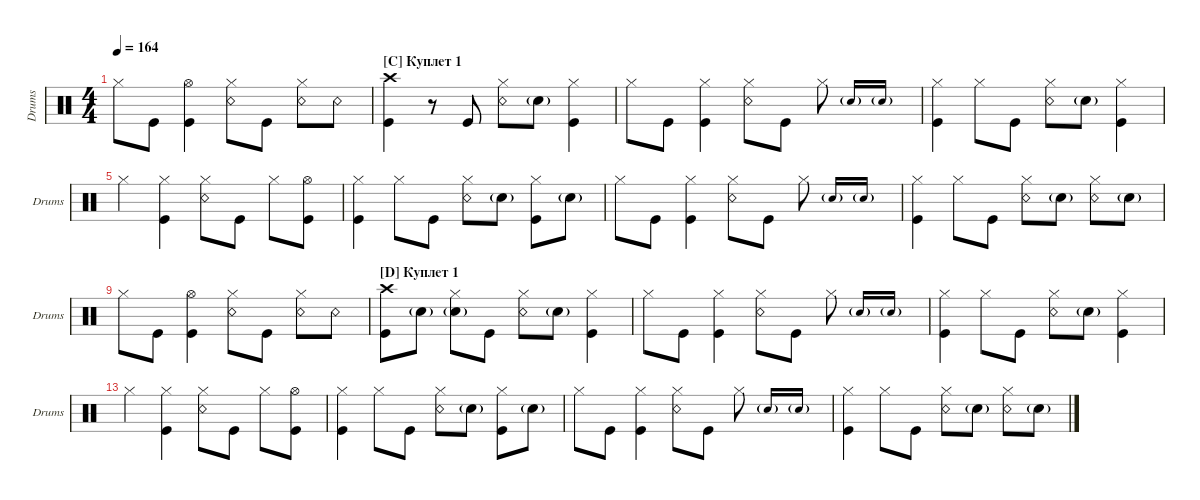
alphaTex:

\defaultSystemsLayout 4
\hideDynamics
\bracketExtendMode groupsimilarinstruments
\singleTrackTrackNamePolicy allsystems
\multiTrackTrackNamePolicy allsystems
\otherSystemsTrackNameOrientation horizontal
\defaultBarNumberDisplay FirstOfSystem
\track ("Drumkit" "Drums") {instrument percussion}
\staff {score}
\articulation defaults
\ts (4 4)
\tempo 164
\clef neutral
\ks c "Hi-Hat (closed)".8{dy f} "Kick (hit)".8
("Kick (hit)" "Hi-Hat (open)").4 ("Snare (rim shot)" "Hi-Hat (closed)").8 "Kick (hit)".8 ("Snare (rim shot)" "Hi-Hat (closed)").8 "Snare (rim shot)".8 |
\section ("C" "Куплет 1")
("Crash high (hit)" "Kick (hit)").4 r.8 "Kick (hit)".8 ("Hi-Hat (closed)" "Snare (rim shot)").8 "Snare (hit) 2"{g}.8 ("Hi-Hat (closed)" "Kick (hit)").4 |
"Hi-Hat (closed)".8 "Kick (hit)".8 ("Kick (hit)" "Hi-Hat (closed)").4 ("Snare (rim shot)" "Hi-Hat (closed)").8 "Kick (hit)".8 "Hi-Hat (closed)".8 "Snare (hit) 2"{g}.16{gr onbeat} "Snare (hit) 2"{g}.16{gr onbeat} |
("Kick (hit)" "Hi-Hat (closed)").4 "Hi-Hat (closed)".8 "Kick (hit)".8 ("Hi-Hat (closed)" "Snare (rim shot)").8 "Snare (hit) 2"{g}.8 ("Hi-Hat (closed)" "Kick (hit)").4 |
"Hi-Hat (closed)".4 ("Kick (hit)" "Hi-Hat (closed)").4 ("Snare (rim shot)" "Hi-Hat (closed)").8 "Kick (hit)".8 "Hi-Hat (closed)".8 ("Kick (hit)" "Hi-Hat (open)").8 |
("Kick (hit)" "Hi-Hat (closed)").4 "Hi-Hat (closed)".8 "Kick (hit)".8 ("Hi-Hat (closed)" "Snare (rim shot)").8 "Snare (hit) 2"{g}.8 ("Hi-Hat (closed)" "Kick (hit)").8 "Snare (hit) 2"{g}.8 |
"Hi-Hat (closed)".8 "Kick (hit)".8 ("Kick (hit)" "Hi-Hat (closed)").4 ("Snare (rim shot)" "Hi-Hat (closed)").8 "Kick (hit)".8 "Hi-Hat (closed)".8 "Snare (hit) 2"{g}.16{gr onbeat} "Snare (hit) 2"{g}.16{gr onbeat} |
("Hi-Hat (closed)" "Kick (hit)").4 "Hi-Hat (closed)".8 "Kick (hit)".8 ("Hi-Hat (closed)" "Snare (rim shot)").8 "Snare (hit) 2"{g}.8 ("Hi-Hat (closed)" "Snare (rim shot)").8 "Snare (hit) 2"{g}.8 |
"Hi-Hat (closed)".8 "Kick (hit)".8 ("Kick (hit)" "Hi-Hat (open)").4 ("Snare (rim shot)" "Hi-Hat (closed)").8 "Kick (hit)".8 ("Snare (rim shot)" "Hi-Hat (closed)").8 "Snare (rim shot)".8 |
\section ("D" "Куплет 1")
("Crash high (hit)" "Kick (hit)").8 "Snare (hit) 2"{g}.8 ("Hi-Hat (closed)" "Snare (hit) 2"{g}).8 "Kick (hit)".8 ("Hi-Hat (closed)" "Snare (rim shot)").8 "Snare (hit) 2"{g}.8 ("Hi-Hat (closed)" "Kick (hit)").4 |
"Hi-Hat (closed)".8 "Kick (hit)".8 ("Kick (hit)" "Hi-Hat (closed)").4 ("Snare (rim shot)" "Hi-Hat (closed)").8 "Kick (hit)".8 "Hi-Hat (closed)".8 "Snare (hit) 2"{g}.16{gr onbeat} "Snare (hit) 2"{g}.16{gr onbeat} |
("Kick (hit)" "Hi-Hat (closed)").4 "Hi-Hat (closed)".8 "Kick (hit)".8 ("Hi-Hat (closed)" "Snare (rim shot)").8 "Snare (hit) 2"{g}.8 ("Hi-Hat (closed)" "Kick (hit)").4 |
"Hi-Hat (closed)".4 ("Kick (hit)" "Hi-Hat (closed)").4 ("Snare (rim shot)" "Hi-Hat (closed)").8 "Kick (hit)".8 "Hi-Hat (closed)".8 ("Kick (hit)" "Hi-Hat (open)").8 |
("Kick (hit)" "Hi-Hat (closed)").4 "Hi-Hat (closed)".8 "Kick (hit)".8 ("Hi-Hat (closed)" "Snare (rim shot)").8 "Snare (hit) 2"{g}.8 ("Hi-Hat (closed)" "Kick (hit)").8 "Snare (hit) 2"{g}.8 |
"Hi-Hat (closed)".8 "Kick (hit)".8 ("Kick (hit)" "Hi-Hat (closed)").4 ("Snare (rim shot)" "Hi-Hat (closed)").8 "Kick (hit)".8 "Hi-Hat (closed)".8 "Snare (hit) 2"{g}.16{gr onbeat} "Snare (hit) 2"{g}.16{gr onbeat} |
("Hi-Hat (closed)" "Kick (hit)").4 "Hi-Hat (closed)".8 "Kick (hit)".8 ("Hi-Hat (closed)" "Snare (rim shot)").8 "Snare (hit) 2"{g}.8 ("Hi-Hat (closed)" "Snare (rim shot)").8 "Snare (hit) 2"{g}.8
